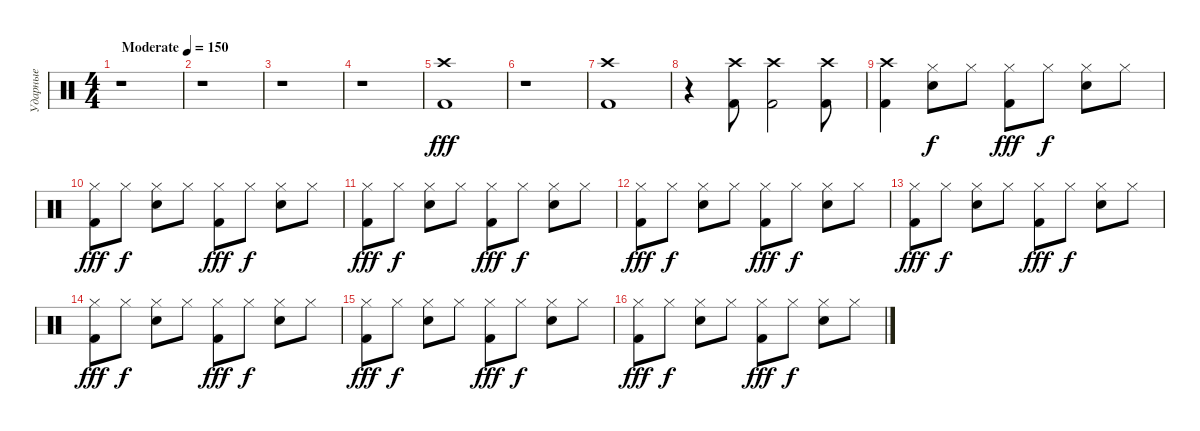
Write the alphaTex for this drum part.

\track ("Ударные" "Ударные") {instrument percussion}
\staff
\articulation defaults
\ts (4 4)
\tempo (150 "Moderate")
\clef neutral
\ks c
r.1{dy fff} |
r.1 |
r.1 |
r.1 |
("Kick (hit) 2" "Crash high (hit)").1 |
r.1 |
("Kick (hit) 2" "Crash high (hit)").1 |
r.4 ("Kick (hit) 2" "Crash high (hit)").8 ("Kick (hit) 2" "Crash high (hit)").2 ("Kick (hit) 2" "Crash high (hit)").8 |
("Kick (hit) 2" "Crash high (hit)").4 ("Snare (hit) 2" "Hi-Hat (closed)").8{dy f} "Hi-Hat (closed)".8 ("Kick (hit) 2" "Hi-Hat (closed)").8{dy fff} "Hi-Hat (closed)".8{dy f} ("Snare (hit) 2" "Hi-Hat (closed)").8 "Hi-Hat (closed)".8 |
("Kick (hit) 2" "Hi-Hat (closed)").8{dy fff} "Hi-Hat (closed)".8{dy f} ("Snare (hit) 2" "Hi-Hat (closed)").8 "Hi-Hat (closed)".8 ("Kick (hit) 2" "Hi-Hat (closed)").8{dy fff} "Hi-Hat (closed)".8{dy f} ("Snare (hit) 2" "Hi-Hat (closed)").8 "Hi-Hat (closed)".8 |
("Kick (hit) 2" "Hi-Hat (closed)").8{dy fff} "Hi-Hat (closed)".8{dy f} ("Snare (hit) 2" "Hi-Hat (closed)").8 "Hi-Hat (closed)".8 ("Kick (hit) 2" "Hi-Hat (closed)").8{dy fff} "Hi-Hat (closed)".8{dy f} ("Snare (hit) 2" "Hi-Hat (closed)").8 "Hi-Hat (closed)".8 |
("Kick (hit) 2" "Hi-Hat (closed)").8{dy fff} "Hi-Hat (closed)".8{dy f} ("Snare (hit) 2" "Hi-Hat (closed)").8 "Hi-Hat (closed)".8 ("Kick (hit) 2" "Hi-Hat (closed)").8{dy fff} "Hi-Hat (closed)".8{dy f} ("Snare (hit) 2" "Hi-Hat (closed)").8 "Hi-Hat (closed)".8 |
("Kick (hit) 2" "Hi-Hat (closed)").8{dy fff} "Hi-Hat (closed)".8{dy f} ("Snare (hit) 2" "Hi-Hat (closed)").8 "Hi-Hat (closed)".8 ("Kick (hit) 2" "Hi-Hat (closed)").8{dy fff} "Hi-Hat (closed)".8{dy f} ("Snare (hit) 2" "Hi-Hat (closed)").8 "Hi-Hat (closed)".8 |
("Kick (hit) 2" "Hi-Hat (closed)").8{dy fff} "Hi-Hat (closed)".8{dy f} ("Snare (hit) 2" "Hi-Hat (closed)").8 "Hi-Hat (closed)".8 ("Kick (hit) 2" "Hi-Hat (closed)").8{dy fff} "Hi-Hat (closed)".8{dy f} ("Snare (hit) 2" "Hi-Hat (closed)").8 "Hi-Hat (closed)".8 |
("Kick (hit) 2" "Hi-Hat (closed)").8{dy fff} "Hi-Hat (closed)".8{dy f} ("Snare (hit) 2" "Hi-Hat (closed)").8 "Hi-Hat (closed)".8 ("Kick (hit) 2" "Hi-Hat (closed)").8{dy fff} "Hi-Hat (closed)".8{dy f} ("Snare (hit) 2" "Hi-Hat (closed)").8 "Hi-Hat (closed)".8 |
("Kick (hit) 2" "Hi-Hat (closed)").8{dy fff} "Hi-Hat (closed)".8{dy f} ("Snare (hit) 2" "Hi-Hat (closed)").8 "Hi-Hat (closed)".8 ("Kick (hit) 2" "Hi-Hat (closed)").8{dy fff} "Hi-Hat (closed)".8{dy f} ("Snare (hit) 2" "Hi-Hat (closed)").8 "Hi-Hat (closed)".8
